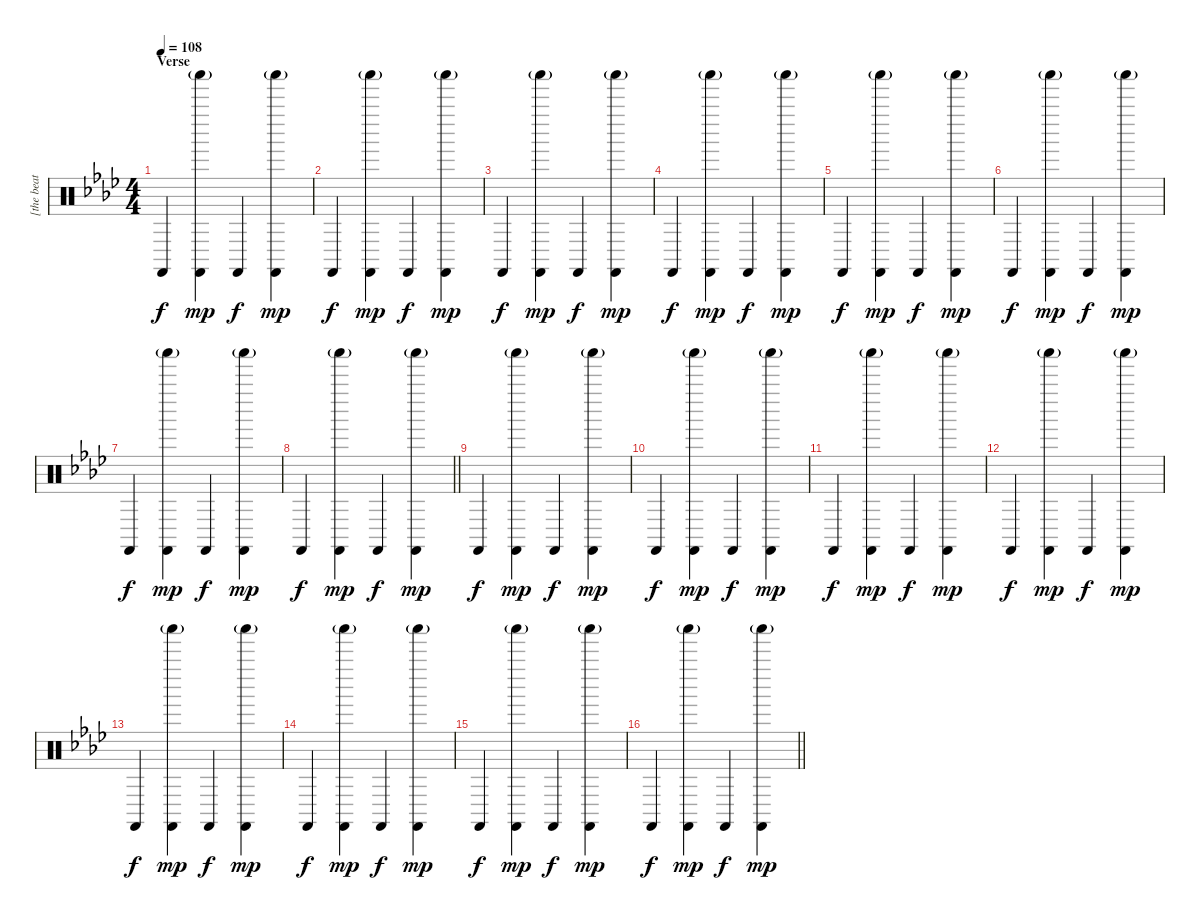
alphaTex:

\track (" [the beat]" " [the beat") {instrument percussion}
\staff {score}
\articulation defaults
\ts (4 4)
\section ("" "Verse")
\tempo 108
\clef neutral
\ks fminor "Castanets (hit)".4{dy f}
("Castanets (hit)" "Shaker (hit)"{g}).4{dy mp} "Castanets (hit)".4{dy f} ("Castanets (hit)" "Shaker (hit)"{g}).4{dy mp} |
"Castanets (hit)".4{dy f} ("Castanets (hit)" "Shaker (hit)"{g}).4{dy mp} "Castanets (hit)".4{dy f} ("Castanets (hit)" "Shaker (hit)"{g}).4{dy mp} |
"Castanets (hit)".4{dy f} ("Castanets (hit)" "Shaker (hit)"{g}).4{dy mp} "Castanets (hit)".4{dy f} ("Castanets (hit)" "Shaker (hit)"{g}).4{dy mp} |
"Castanets (hit)".4{dy f} ("Castanets (hit)" "Shaker (hit)"{g}).4{dy mp} "Castanets (hit)".4{dy f} ("Castanets (hit)" "Shaker (hit)"{g}).4{dy mp} |
"Castanets (hit)".4{dy f} ("Castanets (hit)" "Shaker (hit)"{g}).4{dy mp} "Castanets (hit)".4{dy f} ("Castanets (hit)" "Shaker (hit)"{g}).4{dy mp} |
"Castanets (hit)".4{dy f} ("Castanets (hit)" "Shaker (hit)"{g}).4{dy mp} "Castanets (hit)".4{dy f} ("Castanets (hit)" "Shaker (hit)"{g}).4{dy mp} |
"Castanets (hit)".4{dy f} ("Castanets (hit)" "Shaker (hit)"{g}).4{dy mp} "Castanets (hit)".4{dy f} ("Castanets (hit)" "Shaker (hit)"{g}).4{dy mp} |
\barLineRight lightlight "Castanets (hit)".4{dy f}
("Castanets (hit)" "Shaker (hit)"{g}).4{dy mp} "Castanets (hit)".4{dy f} ("Castanets (hit)" "Shaker (hit)"{g}).4{dy mp} |
\section ("" "")
"Castanets (hit)".4{dy f} ("Castanets (hit)" "Shaker (hit)"{g}).4{dy mp} "Castanets (hit)".4{dy f} ("Castanets (hit)" "Shaker (hit)"{g}).4{dy mp} |
"Castanets (hit)".4{dy f} ("Castanets (hit)" "Shaker (hit)"{g}).4{dy mp} "Castanets (hit)".4{dy f} ("Castanets (hit)" "Shaker (hit)"{g}).4{dy mp} |
"Castanets (hit)".4{dy f} ("Castanets (hit)" "Shaker (hit)"{g}).4{dy mp} "Castanets (hit)".4{dy f} ("Castanets (hit)" "Shaker (hit)"{g}).4{dy mp} |
"Castanets (hit)".4{dy f} ("Castanets (hit)" "Shaker (hit)"{g}).4{dy mp} "Castanets (hit)".4{dy f} ("Castanets (hit)" "Shaker (hit)"{g}).4{dy mp} |
"Castanets (hit)".4{dy f} ("Castanets (hit)" "Shaker (hit)"{g}).4{dy mp} "Castanets (hit)".4{dy f} ("Castanets (hit)" "Shaker (hit)"{g}).4{dy mp} |
"Castanets (hit)".4{dy f} ("Castanets (hit)" "Shaker (hit)"{g}).4{dy mp} "Castanets (hit)".4{dy f} ("Castanets (hit)" "Shaker (hit)"{g}).4{dy mp} |
"Castanets (hit)".4{dy f} ("Castanets (hit)" "Shaker (hit)"{g}).4{dy mp} "Castanets (hit)".4{dy f} ("Castanets (hit)" "Shaker (hit)"{g}).4{dy mp} |
\barLineRight lightlight "Castanets (hit)".4{dy f}
("Castanets (hit)" "Shaker (hit)"{g}).4{dy mp} "Castanets (hit)".4{dy f} ("Castanets (hit)" "Shaker (hit)"{g}).4{dy mp}
